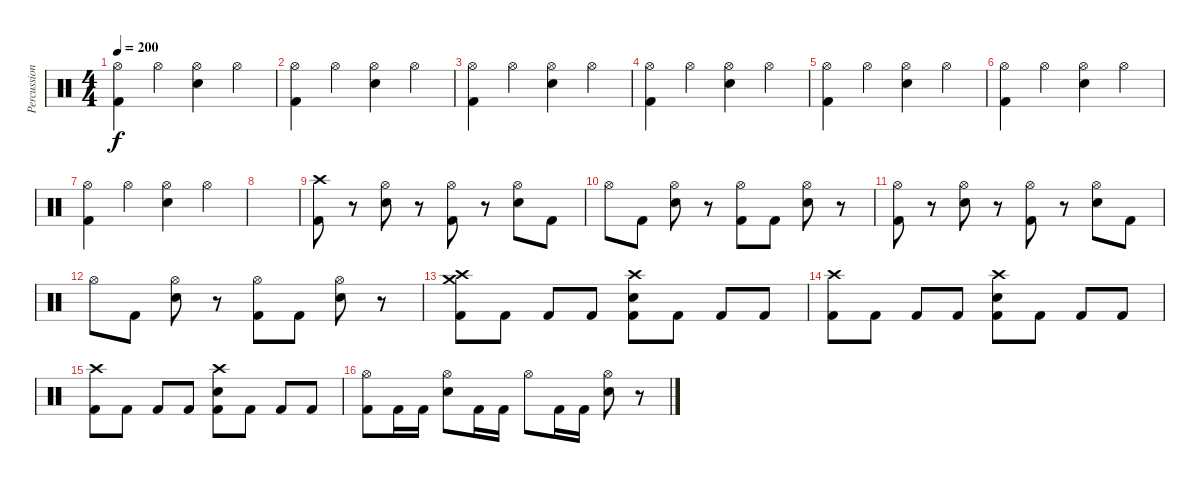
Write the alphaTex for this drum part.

\track ("Percussion" "Percussion") {instrument percussion}
\staff {score}
\articulation defaults
\ts (4 4)
\tempo 200
\clef neutral
\ks c
("Hi-Hat (open)" "Kick (hit) 2").4{dy f} "Hi-Hat (open)".4 ("Hi-Hat (open)" "Snare (hit) 2").4 "Hi-Hat (open)".4 |
("Hi-Hat (open)" "Kick (hit) 2").4 "Hi-Hat (open)".4 ("Hi-Hat (open)" "Snare (hit) 2").4 "Hi-Hat (open)".4 |
("Hi-Hat (open)" "Kick (hit) 2").4 "Hi-Hat (open)".4 ("Hi-Hat (open)" "Snare (hit) 2").4 "Hi-Hat (open)".4 |
("Hi-Hat (open)" "Kick (hit) 2").4 "Hi-Hat (open)".4 ("Hi-Hat (open)" "Snare (hit) 2").4 "Hi-Hat (open)".4 |
("Hi-Hat (open)" "Kick (hit) 2").4 "Hi-Hat (open)".4 ("Hi-Hat (open)" "Snare (hit) 2").4 "Hi-Hat (open)".4 |
("Hi-Hat (open)" "Kick (hit) 2").4 "Hi-Hat (open)".4 ("Hi-Hat (open)" "Snare (hit) 2").4 "Hi-Hat (open)".4 |
("Hi-Hat (open)" "Kick (hit) 2").4 "Hi-Hat (open)".4 ("Hi-Hat (open)" "Snare (hit) 2").4 "Hi-Hat (open)".4 |
|
("Crash high (hit)" "Kick (hit) 2").8 r.8 ("Hi-Hat (open)" "Snare (hit) 2").8 r.8 ("Hi-Hat (open)" "Kick (hit) 2").8 r.8 ("Hi-Hat (open)" "Snare (hit) 2").8 "Kick (hit) 2".8 |
"Hi-Hat (open)".8 "Kick (hit) 2".8 ("Hi-Hat (open)" "Snare (hit) 2").8 r.8 ("Hi-Hat (open)" "Kick (hit) 2").8 "Kick (hit) 2".8 ("Hi-Hat (open)" "Snare (hit) 2").8 r.8 |
("Hi-Hat (open)" "Kick (hit) 2").8 r.8 ("Hi-Hat (open)" "Snare (hit) 2").8 r.8 ("Hi-Hat (open)" "Kick (hit) 2").8 r.8 ("Hi-Hat (open)" "Snare (hit) 2").8 "Kick (hit) 2".8 |
"Hi-Hat (open)".8 "Kick (hit) 2".8 ("Hi-Hat (open)" "Snare (hit) 2").8 r.8 ("Hi-Hat (open)" "Kick (hit) 2").8 "Kick (hit) 2".8 ("Hi-Hat (open)" "Snare (hit) 2").8 r.8 |
("Crash high (hit)" "Crash medium (hit)" "Kick (hit) 2").8 "Kick (hit) 2".8 "Kick (hit) 2".8 "Kick (hit) 2".8 ("Crash high (hit)" "Snare (hit) 2" "Kick (hit) 2").8 "Kick (hit) 2".8 "Kick (hit) 2".8 "Kick (hit) 2".8 |
("Crash high (hit)" "Kick (hit) 2").8 "Kick (hit) 2".8 "Kick (hit) 2".8 "Kick (hit) 2".8 ("Crash high (hit)" "Snare (hit) 2" "Kick (hit) 2").8 "Kick (hit) 2".8 "Kick (hit) 2".8 "Kick (hit) 2".8 |
("Crash high (hit)" "Kick (hit) 2").8 "Kick (hit) 2".8 "Kick (hit) 2".8 "Kick (hit) 2".8 ("Crash high (hit)" "Snare (hit) 2" "Kick (hit) 2").8 "Kick (hit) 2".8 "Kick (hit) 2".8 "Kick (hit) 2".8 |
("Hi-Hat (open)" "Kick (hit) 2").8 "Kick (hit) 2".16 "Kick (hit) 2".16 ("Hi-Hat (open)" "Snare (hit) 2").8 "Kick (hit) 2".16 "Kick (hit) 2".16 "Hi-Hat (open)".8 "Kick (hit) 2".16 "Kick (hit) 2".16 ("Hi-Hat (open)" "Snare (hit) 2").8 r.8
